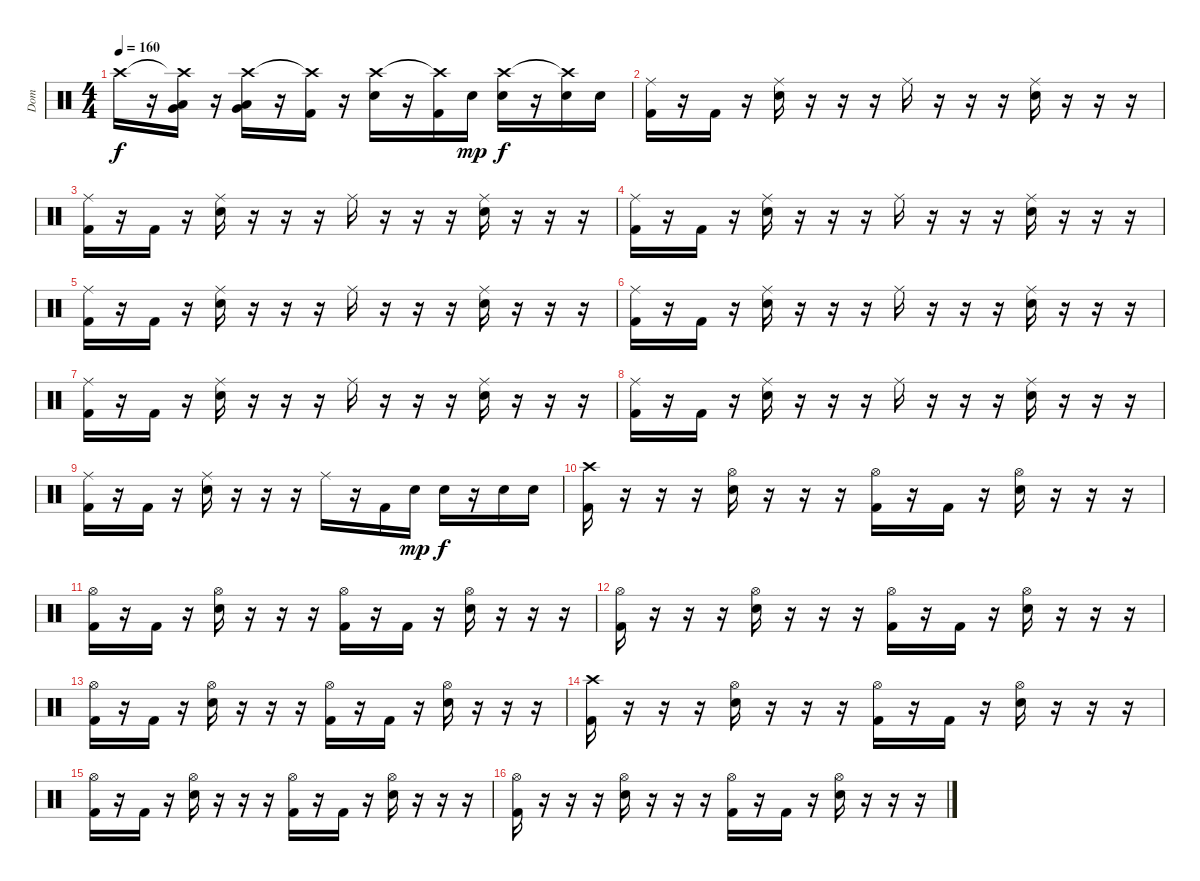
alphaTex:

\track ("Dom" "Dom") {instrument percussion}
\staff {score}
\articulation defaults
\ts (4 4)
\tempo 160
\clef neutral
\ks c "Crash high (hit)".16{dy f}
r.16 ("Crash high (hit)"{t} "Low Tom (hit)" "Very Low Tom (hit)").16 r.16 ("Crash high (hit)" "Low Tom (hit)" "Very Low Tom (hit)").16 r.16 ("Crash high (hit)"{t} "Kick (hit) 2").16 r.16 ("Crash high (hit)" "Electric Snare (hit)").16 r.16 ("Crash high (hit)"{t} "Kick (hit) 2").16 "Electric Snare (hit)".16{dy mp} ("Crash high (hit)" "Electric Snare (hit)").16{dy f} r.16 ("Crash high (hit)"{t} "Electric Snare (hit)").16 "Electric Snare (hit)".16 |
("Ride (middle)" "Kick (hit) 2").16 r.16 "Kick (hit) 2".16 r.16 ("Ride (middle)" "Electric Snare (hit)").16 r.16 r.16 r.16 "Ride (middle)".16 r.16 r.16 r.16 ("Ride (middle)" "Electric Snare (hit)").16 r.16 r.16 r.16 |
("Ride (middle)" "Kick (hit) 2").16 r.16 "Kick (hit) 2".16 r.16 ("Ride (middle)" "Electric Snare (hit)").16 r.16 r.16 r.16 "Ride (middle)".16 r.16 r.16 r.16 ("Ride (middle)" "Electric Snare (hit)").16 r.16 r.16 r.16 |
("Ride (middle)" "Kick (hit) 2").16 r.16 "Kick (hit) 2".16 r.16 ("Ride (middle)" "Electric Snare (hit)").16 r.16 r.16 r.16 "Ride (middle)".16 r.16 r.16 r.16 ("Ride (middle)" "Electric Snare (hit)").16 r.16 r.16 r.16 |
("Ride (middle)" "Kick (hit) 2").16 r.16 "Kick (hit) 2".16 r.16 ("Ride (middle)" "Electric Snare (hit)").16 r.16 r.16 r.16 "Ride (middle)".16 r.16 r.16 r.16 ("Ride (middle)" "Electric Snare (hit)").16 r.16 r.16 r.16 |
("Ride (middle)" "Kick (hit) 2").16 r.16 "Kick (hit) 2".16 r.16 ("Ride (middle)" "Electric Snare (hit)").16 r.16 r.16 r.16 "Ride (middle)".16 r.16 r.16 r.16 ("Ride (middle)" "Electric Snare (hit)").16 r.16 r.16 r.16 |
("Ride (middle)" "Kick (hit) 2").16 r.16 "Kick (hit) 2".16 r.16 ("Ride (middle)" "Electric Snare (hit)").16 r.16 r.16 r.16 "Ride (middle)".16 r.16 r.16 r.16 ("Ride (middle)" "Electric Snare (hit)").16 r.16 r.16 r.16 |
("Ride (middle)" "Kick (hit) 2").16 r.16 "Kick (hit) 2".16 r.16 ("Ride (middle)" "Electric Snare (hit)").16 r.16 r.16 r.16 "Ride (middle)".16 r.16 r.16 r.16 ("Ride (middle)" "Electric Snare (hit)").16 r.16 r.16 r.16 |
("Ride (middle)" "Kick (hit) 2").16 r.16 "Kick (hit) 2".16 r.16 ("Ride (middle)" "Electric Snare (hit)").16 r.16 r.16 r.16 "Ride (middle)".16 r.16 "Kick (hit) 2".16 "Electric Snare (hit)".16{dy mp} "Electric Snare (hit)".16{dy f} r.16 "Electric Snare (hit)".16 "Electric Snare (hit)".16 |
("Crash high (hit)" "Kick (hit) 2").16 r.16 r.16 r.16 ("Hi-Hat (open)" "Electric Snare (hit)").16 r.16 r.16 r.16 ("Hi-Hat (open)" "Kick (hit) 2").16 r.16 "Kick (hit) 2".16 r.16 ("Hi-Hat (open)" "Electric Snare (hit)").16 r.16 r.16 r.16 |
("Hi-Hat (open)" "Kick (hit) 2").16 r.16 "Kick (hit) 2".16 r.16 ("Hi-Hat (open)" "Electric Snare (hit)").16 r.16 r.16 r.16 ("Hi-Hat (open)" "Kick (hit) 2").16 r.16 "Kick (hit) 2".16 r.16 ("Hi-Hat (open)" "Electric Snare (hit)").16 r.16 r.16 r.16 |
("Hi-Hat (open)" "Kick (hit) 2").16 r.16 r.16 r.16 ("Hi-Hat (open)" "Electric Snare (hit)").16 r.16 r.16 r.16 ("Hi-Hat (open)" "Kick (hit) 2").16 r.16 "Kick (hit) 2".16 r.16 ("Hi-Hat (open)" "Electric Snare (hit)").16 r.16 r.16 r.16 |
("Hi-Hat (open)" "Kick (hit) 2").16 r.16 "Kick (hit) 2".16 r.16 ("Hi-Hat (open)" "Electric Snare (hit)").16 r.16 r.16 r.16 ("Hi-Hat (open)" "Kick (hit) 2").16 r.16 "Kick (hit) 2".16 r.16 ("Hi-Hat (open)" "Electric Snare (hit)").16 r.16 r.16 r.16 |
("Crash high (hit)" "Kick (hit) 2").16 r.16 r.16 r.16 ("Hi-Hat (open)" "Electric Snare (hit)").16 r.16 r.16 r.16 ("Hi-Hat (open)" "Kick (hit) 2").16 r.16 "Kick (hit) 2".16 r.16 ("Hi-Hat (open)" "Electric Snare (hit)").16 r.16 r.16 r.16 |
("Hi-Hat (open)" "Kick (hit) 2").16 r.16 "Kick (hit) 2".16 r.16 ("Hi-Hat (open)" "Electric Snare (hit)").16 r.16 r.16 r.16 ("Hi-Hat (open)" "Kick (hit) 2").16 r.16 "Kick (hit) 2".16 r.16 ("Hi-Hat (open)" "Electric Snare (hit)").16 r.16 r.16 r.16 |
("Hi-Hat (open)" "Kick (hit) 2").16 r.16 r.16 r.16 ("Hi-Hat (open)" "Electric Snare (hit)").16 r.16 r.16 r.16 ("Hi-Hat (open)" "Kick (hit) 2").16 r.16 "Kick (hit) 2".16 r.16 ("Hi-Hat (open)" "Electric Snare (hit)").16 r.16 r.16 r.16
